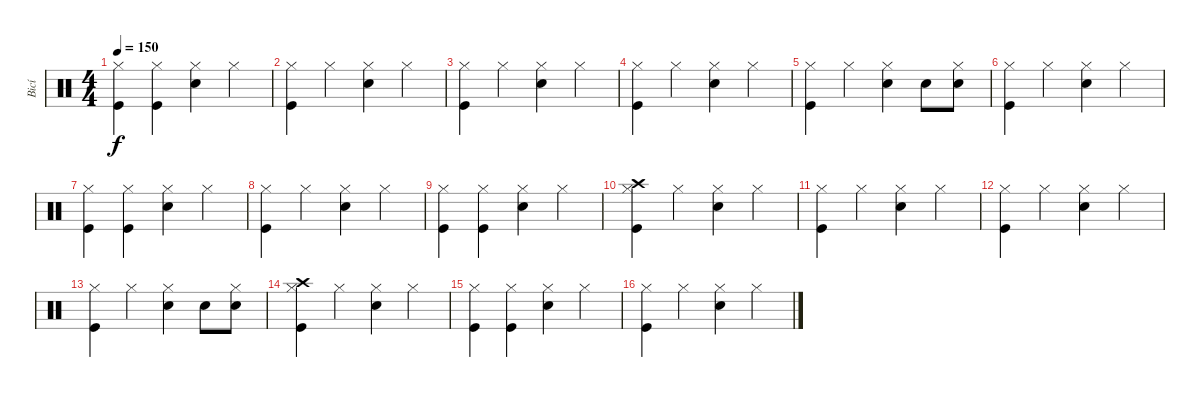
\track ("Bicí" "Bicí") {instrument percussion}
\staff {score}
\articulation defaults
\ts (4 4)
\tempo 150
\clef neutral
\ks c
("Kick (hit)" "Hi-Hat (closed)").4{dy f} ("Kick (hit)" "Hi-Hat (closed)").4 ("Snare (hit) 2" "Hi-Hat (closed)").4 "Hi-Hat (closed)".4 |
("Kick (hit)" "Hi-Hat (closed)").4 "Hi-Hat (closed)".4 ("Snare (hit) 2" "Hi-Hat (closed)").4 "Hi-Hat (closed)".4 |
("Kick (hit)" "Hi-Hat (closed)").4 "Hi-Hat (closed)".4 ("Snare (hit) 2" "Hi-Hat (closed)").4 "Hi-Hat (closed)".4 |
("Kick (hit)" "Hi-Hat (closed)").4 "Hi-Hat (closed)".4 ("Snare (hit) 2" "Hi-Hat (closed)").4 "Hi-Hat (closed)".4 |
("Kick (hit)" "Hi-Hat (closed)").4 "Hi-Hat (closed)".4 ("Snare (hit) 2" "Hi-Hat (closed)").4 "Snare (hit) 2".8 ("Snare (hit) 2" "Hi-Hat (closed)").8 |
("Kick (hit)" "Hi-Hat (closed)").4 "Hi-Hat (closed)".4 ("Snare (hit) 2" "Hi-Hat (closed)").4 "Hi-Hat (closed)".4 |
("Kick (hit)" "Hi-Hat (closed)").4 ("Kick (hit)" "Hi-Hat (closed)").4 ("Snare (hit) 2" "Hi-Hat (closed)").4 "Hi-Hat (closed)".4 |
("Kick (hit)" "Hi-Hat (closed)").4 "Hi-Hat (closed)".4 ("Snare (hit) 2" "Hi-Hat (closed)").4 "Hi-Hat (closed)".4 |
("Kick (hit)" "Hi-Hat (closed)").4 ("Kick (hit)" "Hi-Hat (closed)").4 ("Snare (hit) 2" "Hi-Hat (closed)").4 "Hi-Hat (closed)".4 |
("Kick (hit)" "Crash high (hit)" "Hi-Hat (closed)").4 "Hi-Hat (closed)".4 ("Snare (hit) 2" "Hi-Hat (closed)").4 "Hi-Hat (closed)".4 |
("Kick (hit)" "Hi-Hat (closed)").4 "Hi-Hat (closed)".4 ("Snare (hit) 2" "Hi-Hat (closed)").4 "Hi-Hat (closed)".4 |
("Kick (hit)" "Hi-Hat (closed)").4 "Hi-Hat (closed)".4 ("Snare (hit) 2" "Hi-Hat (closed)").4 "Hi-Hat (closed)".4 |
("Kick (hit)" "Hi-Hat (closed)").4 "Hi-Hat (closed)".4 ("Snare (hit) 2" "Hi-Hat (closed)").4 "Snare (hit) 2".8 ("Snare (hit) 2" "Hi-Hat (closed)").8 |
("Kick (hit)" "Crash high (hit)" "Hi-Hat (closed)").4 "Hi-Hat (closed)".4 ("Snare (hit) 2" "Hi-Hat (closed)").4 "Hi-Hat (closed)".4 |
("Kick (hit)" "Hi-Hat (closed)").4 ("Kick (hit)" "Hi-Hat (closed)").4 ("Snare (hit) 2" "Hi-Hat (closed)").4 "Hi-Hat (closed)".4 |
("Kick (hit)" "Hi-Hat (closed)").4 "Hi-Hat (closed)".4 ("Snare (hit) 2" "Hi-Hat (closed)").4 "Hi-Hat (closed)".4
